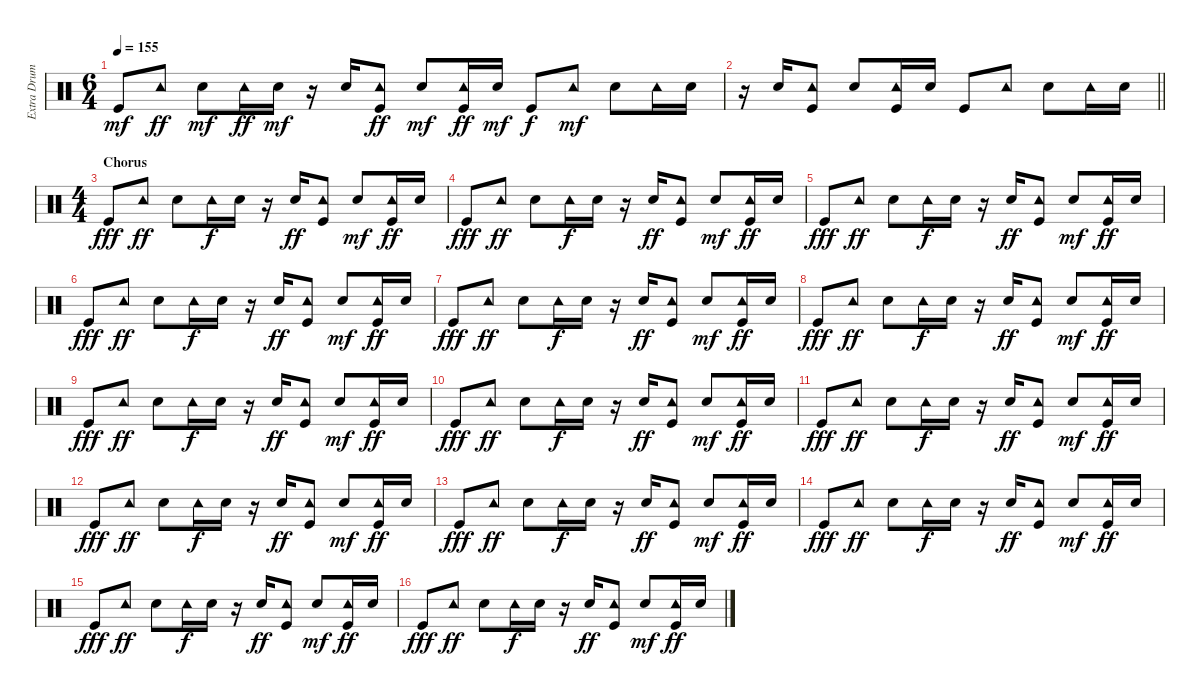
\track ("Extra Drums" "Extra Drum") {instrument percussion}
\staff {score}
\articulation defaults
\ts (6 4)
\tempo 155
\clef neutral
\ks c "Kick (hit)".8{dy mf} "Tambourine (hit)".8{dy ff} "Electric Snare (hit)".8{dy mf} "Tambourine (hit)".16{dy ff} "Electric Snare (hit)".16{dy mf}
r.16 "Electric Snare (hit)".16 ("Kick (hit)" "Tambourine (hit)").8{dy ff} "Electric Snare (hit)".8{dy mf} ("Kick (hit)" "Tambourine (hit)").16{dy ff} "Electric Snare (hit)".16{dy mf} "Kick (hit)".8{dy f} "Tambourine (hit)".8{dy mf} "Electric Snare (hit)".8 "Tambourine (hit)".16 "Electric Snare (hit)".16 |
\barLineRight lightlight
r.16 "Electric Snare (hit)".16 ("Kick (hit)" "Tambourine (hit)").8 "Electric Snare (hit)".8 ("Kick (hit)" "Tambourine (hit)").16 "Electric Snare (hit)".16 "Kick (hit)".8 "Tambourine (hit)".8 "Electric Snare (hit)".8 "Tambourine (hit)".16 "Electric Snare (hit)".16 |
\ts (4 4)
\section ("" "Chorus")
"Kick (hit)".8{dy fff} "Tambourine (hit)".8{dy ff} "Electric Snare (hit)".8 "Tambourine (hit)".16{dy f} "Electric Snare (hit)".16 r.16 "Electric Snare (hit)".16{dy ff} ("Kick (hit)" "Tambourine (hit)").8 "Electric Snare (hit)".8{dy mf} ("Kick (hit)" "Tambourine (hit)").16{dy ff} "Electric Snare (hit)".16 |
"Kick (hit)".8{dy fff} "Tambourine (hit)".8{dy ff} "Electric Snare (hit)".8 "Tambourine (hit)".16{dy f} "Electric Snare (hit)".16 r.16 "Electric Snare (hit)".16{dy ff} ("Kick (hit)" "Tambourine (hit)").8 "Electric Snare (hit)".8{dy mf} ("Kick (hit)" "Tambourine (hit)").16{dy ff} "Electric Snare (hit)".16 |
"Kick (hit)".8{dy fff} "Tambourine (hit)".8{dy ff} "Electric Snare (hit)".8 "Tambourine (hit)".16{dy f} "Electric Snare (hit)".16 r.16 "Electric Snare (hit)".16{dy ff} ("Kick (hit)" "Tambourine (hit)").8 "Electric Snare (hit)".8{dy mf} ("Kick (hit)" "Tambourine (hit)").16{dy ff} "Electric Snare (hit)".16 |
"Kick (hit)".8{dy fff} "Tambourine (hit)".8{dy ff} "Electric Snare (hit)".8 "Tambourine (hit)".16{dy f} "Electric Snare (hit)".16 r.16 "Electric Snare (hit)".16{dy ff} ("Kick (hit)" "Tambourine (hit)").8 "Electric Snare (hit)".8{dy mf} ("Kick (hit)" "Tambourine (hit)").16{dy ff} "Electric Snare (hit)".16 |
"Kick (hit)".8{dy fff} "Tambourine (hit)".8{dy ff} "Electric Snare (hit)".8 "Tambourine (hit)".16{dy f} "Electric Snare (hit)".16 r.16 "Electric Snare (hit)".16{dy ff} ("Kick (hit)" "Tambourine (hit)").8 "Electric Snare (hit)".8{dy mf} ("Kick (hit)" "Tambourine (hit)").16{dy ff} "Electric Snare (hit)".16 |
"Kick (hit)".8{dy fff} "Tambourine (hit)".8{dy ff} "Electric Snare (hit)".8 "Tambourine (hit)".16{dy f} "Electric Snare (hit)".16 r.16 "Electric Snare (hit)".16{dy ff} ("Kick (hit)" "Tambourine (hit)").8 "Electric Snare (hit)".8{dy mf} ("Kick (hit)" "Tambourine (hit)").16{dy ff} "Electric Snare (hit)".16 |
"Kick (hit)".8{dy fff} "Tambourine (hit)".8{dy ff} "Electric Snare (hit)".8 "Tambourine (hit)".16{dy f} "Electric Snare (hit)".16 r.16 "Electric Snare (hit)".16{dy ff} ("Kick (hit)" "Tambourine (hit)").8 "Electric Snare (hit)".8{dy mf} ("Kick (hit)" "Tambourine (hit)").16{dy ff} "Electric Snare (hit)".16 |
"Kick (hit)".8{dy fff} "Tambourine (hit)".8{dy ff} "Electric Snare (hit)".8 "Tambourine (hit)".16{dy f} "Electric Snare (hit)".16 r.16 "Electric Snare (hit)".16{dy ff} ("Kick (hit)" "Tambourine (hit)").8 "Electric Snare (hit)".8{dy mf} ("Kick (hit)" "Tambourine (hit)").16{dy ff} "Electric Snare (hit)".16 |
"Kick (hit)".8{dy fff} "Tambourine (hit)".8{dy ff} "Electric Snare (hit)".8 "Tambourine (hit)".16{dy f} "Electric Snare (hit)".16 r.16 "Electric Snare (hit)".16{dy ff} ("Kick (hit)" "Tambourine (hit)").8 "Electric Snare (hit)".8{dy mf} ("Kick (hit)" "Tambourine (hit)").16{dy ff} "Electric Snare (hit)".16 |
"Kick (hit)".8{dy fff} "Tambourine (hit)".8{dy ff} "Electric Snare (hit)".8 "Tambourine (hit)".16{dy f} "Electric Snare (hit)".16 r.16 "Electric Snare (hit)".16{dy ff} ("Kick (hit)" "Tambourine (hit)").8 "Electric Snare (hit)".8{dy mf} ("Kick (hit)" "Tambourine (hit)").16{dy ff} "Electric Snare (hit)".16 |
"Kick (hit)".8{dy fff} "Tambourine (hit)".8{dy ff} "Electric Snare (hit)".8 "Tambourine (hit)".16{dy f} "Electric Snare (hit)".16 r.16 "Electric Snare (hit)".16{dy ff} ("Kick (hit)" "Tambourine (hit)").8 "Electric Snare (hit)".8{dy mf} ("Kick (hit)" "Tambourine (hit)").16{dy ff} "Electric Snare (hit)".16 |
"Kick (hit)".8{dy fff} "Tambourine (hit)".8{dy ff} "Electric Snare (hit)".8 "Tambourine (hit)".16{dy f} "Electric Snare (hit)".16 r.16 "Electric Snare (hit)".16{dy ff} ("Kick (hit)" "Tambourine (hit)").8 "Electric Snare (hit)".8{dy mf} ("Kick (hit)" "Tambourine (hit)").16{dy ff} "Electric Snare (hit)".16 |
"Kick (hit)".8{dy fff} "Tambourine (hit)".8{dy ff} "Electric Snare (hit)".8 "Tambourine (hit)".16{dy f} "Electric Snare (hit)".16 r.16 "Electric Snare (hit)".16{dy ff} ("Kick (hit)" "Tambourine (hit)").8 "Electric Snare (hit)".8{dy mf} ("Kick (hit)" "Tambourine (hit)").16{dy ff} "Electric Snare (hit)".16 |
"Kick (hit)".8{dy fff} "Tambourine (hit)".8{dy ff} "Electric Snare (hit)".8 "Tambourine (hit)".16{dy f} "Electric Snare (hit)".16 r.16 "Electric Snare (hit)".16{dy ff} ("Kick (hit)" "Tambourine (hit)").8 "Electric Snare (hit)".8{dy mf} ("Kick (hit)" "Tambourine (hit)").16{dy ff} "Electric Snare (hit)".16
